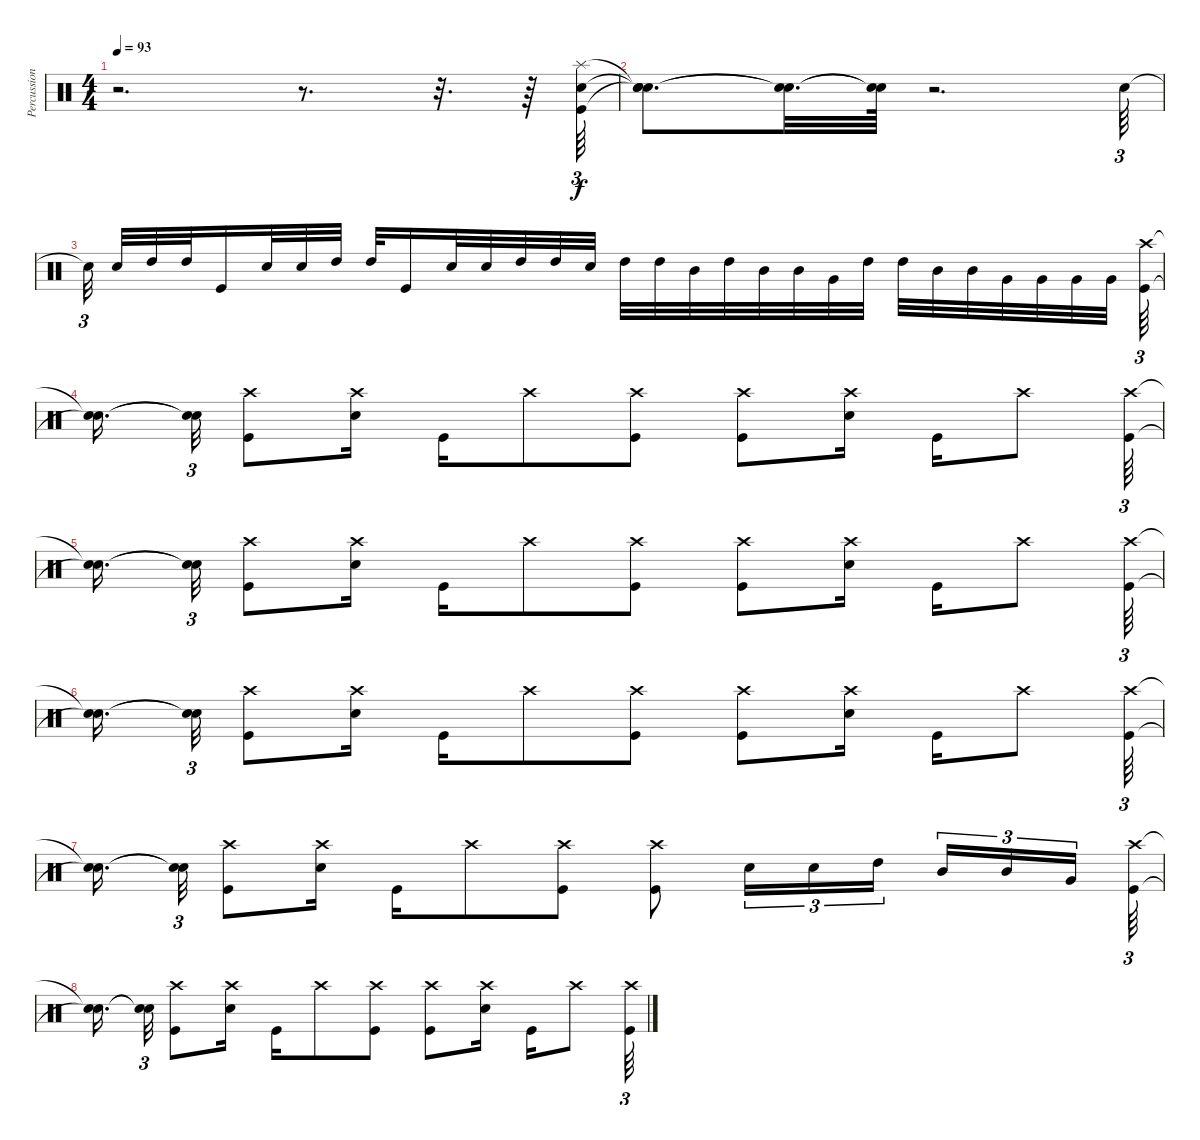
\track ("Percussion" "Percussion") {instrument percussion}
\staff {score}
\articulation defaults
\ts (4 4)
\tempo 93
\clef neutral
\ks c
r.2{d dy f} r.8{d} r.32{d} r.64 ("Splash (hit)" "Snare (hit) 2" "Kick (hit)").64{tu (3 2)} |
("Snare (hit)"{t} "Snare (hit)"{t} "Snare (hit)"{t}).8{d} ("Snare (hit)"{t} "Snare (hit)"{t}).32{d} ("Snare (hit)"{t} "Snare (hit)"{t}).64 r.2{d} "Snare (hit) 2".64{tu (3 2)} |
"Snare (hit)"{t}.32{tu (3 2) beam splitsecondary} "Snare (hit) 2".32 "High Tom (hit)".32 "High Tom (hit)".32 "Kick (hit)".16 "Snare (hit) 2".32 "Snare (hit) 2".32 "High Tom (hit)".32 "High Tom (hit)".32 "Kick (hit)".16 "Snare (hit) 2".32 "Snare (hit) 2".32 "High Tom (hit)".32 "High Tom (hit)".32 "Snare (hit) 2".32 "High Tom (hit)".32 "High Tom (hit)".32 "Mid Tom (hit)".32 "High Tom (hit)".32 "Mid Tom (hit)".32 "Mid Tom (hit)".32 "Very Low Tom (hit)".32 "High Tom (hit)".32 "High Tom (hit)".32 "Mid Tom (hit)".32 "Mid Tom (hit)".32 "Very Low Tom (hit)".32 "Very Low Tom (hit)".32 "Very Low Tom (hit)".32 "Very Low Tom (hit)".32{beam splitsecondary} ("Crash high (hit)" "Kick (hit)").64{tu (3 2)} |
("Snare (hit)"{t} "Snare (hit)"{t}).16{d beam splitsecondary} ("Snare (hit)"{t} "Snare (hit)"{t}).32{tu (3 2)} ("Crash high (hit)" "Kick (hit)").8 ("Crash high (hit)" "Snare (hit) 2").16 "Kick (hit)".16 "Crash high (hit)".8 ("Crash high (hit)" "Kick (hit)").8 ("Crash high (hit)" "Kick (hit)").8 ("Crash high (hit)" "Snare (hit) 2").16 "Kick (hit)".16 "Crash high (hit)".8 ("Crash high (hit)" "Kick (hit)").64{tu (3 2)} |
("Snare (hit)"{t} "Snare (hit)"{t}).16{d beam splitsecondary} ("Snare (hit)"{t} "Snare (hit)"{t}).32{tu (3 2)} ("Crash high (hit)" "Kick (hit)").8 ("Crash high (hit)" "Snare (hit) 2").16 "Kick (hit)".16 "Crash high (hit)".8 ("Crash high (hit)" "Kick (hit)").8 ("Crash high (hit)" "Kick (hit)").8 ("Crash high (hit)" "Snare (hit) 2").16 "Kick (hit)".16 "Crash high (hit)".8 ("Crash high (hit)" "Kick (hit)").64{tu (3 2)} |
("Snare (hit)"{t} "Snare (hit)"{t}).16{d beam splitsecondary} ("Snare (hit)"{t} "Snare (hit)"{t}).32{tu (3 2)} ("Crash high (hit)" "Kick (hit)").8 ("Crash high (hit)" "Snare (hit) 2").16 "Kick (hit)".16 "Crash high (hit)".8 ("Crash high (hit)" "Kick (hit)").8 ("Crash high (hit)" "Kick (hit)").8 ("Crash high (hit)" "Snare (hit) 2").16 "Kick (hit)".16 "Crash high (hit)".8 ("Crash high (hit)" "Kick (hit)").64{tu (3 2)} |
("Snare (hit)"{t} "Snare (hit)"{t}).16{d beam splitsecondary} ("Snare (hit)"{t} "Snare (hit)"{t}).32{tu (3 2)} ("Crash high (hit)" "Kick (hit)").8 ("Crash high (hit)" "Snare (hit) 2").16 "Kick (hit)".16 "Crash high (hit)".8 ("Crash high (hit)" "Kick (hit)").8 ("Crash high (hit)" "Kick (hit)").8 "Snare (hit) 2".16{tu (3 2)} "Snare (hit) 2".16{tu (3 2)} "High Tom (hit)".16{tu (3 2) beam splitsecondary} "Mid Tom (hit)".16{tu (3 2)} "Mid Tom (hit)".16{tu (3 2)} "Very Low Tom (hit)".16{tu (3 2) beam splitsecondary} ("Crash high (hit)" "Kick (hit)").64{tu (3 2)} |
("Snare (hit)"{t} "Snare (hit)"{t}).16{d beam splitsecondary} ("Snare (hit)"{t} "Snare (hit)"{t}).32{tu (3 2)} ("Crash high (hit)" "Kick (hit)").8 ("Crash high (hit)" "Snare (hit) 2").16 "Kick (hit)".16 "Crash high (hit)".8 ("Crash high (hit)" "Kick (hit)").8 ("Crash high (hit)" "Kick (hit)").8 ("Crash high (hit)" "Snare (hit) 2").16 "Kick (hit)".16 "Crash high (hit)".8 ("Crash high (hit)" "Kick (hit)").64{tu (3 2)}
